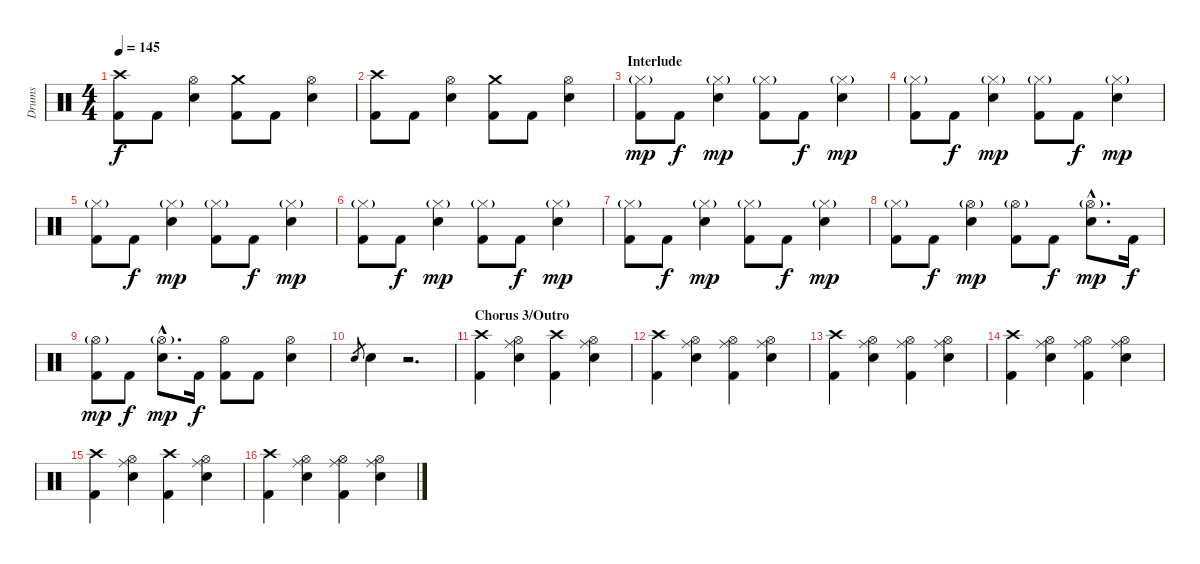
\track ("Drums" "Drums") {instrument percussion}
\staff {score}
\articulation defaults
\ts (4 4)
\tempo 145
\clef neutral
\ks c
("Crash high (hit)" "Kick (hit) 2").8{dy f} "Kick (hit) 2".8 ("Hi-Hat (open)" "Snare (hit) 2").4 ("Crash medium (hit)" "Kick (hit) 2").8 "Kick (hit) 2".8 ("Hi-Hat (open)" "Snare (hit) 2").4 |
("Crash high (hit)" "Kick (hit) 2").8 "Kick (hit) 2".8 ("Hi-Hat (open)" "Snare (hit) 2").4 ("Crash medium (hit)" "Kick (hit) 2").8 "Kick (hit) 2".8 ("Hi-Hat (open)" "Snare (hit) 2").4 |
\section ("" "Interlude")
("Hi-Hat (closed)"{g} "Kick (hit) 2").8{dy mp} "Kick (hit) 2".8{dy f} ("Hi-Hat (closed)"{g} "Snare (hit) 2").4{dy mp} ("Hi-Hat (closed)"{g} "Kick (hit) 2").8 "Kick (hit) 2".8{dy f} ("Hi-Hat (closed)"{g} "Snare (hit) 2").4{dy mp} |
("Hi-Hat (closed)"{g} "Kick (hit) 2").8 "Kick (hit) 2".8{dy f} ("Hi-Hat (closed)"{g} "Snare (hit) 2").4{dy mp} ("Hi-Hat (closed)"{g} "Kick (hit) 2").8 "Kick (hit) 2".8{dy f} ("Hi-Hat (closed)"{g} "Snare (hit) 2").4{dy mp} |
("Hi-Hat (closed)"{g} "Kick (hit) 2").8 "Kick (hit) 2".8{dy f} ("Hi-Hat (closed)"{g} "Snare (hit) 2").4{dy mp} ("Hi-Hat (closed)"{g} "Kick (hit) 2").8 "Kick (hit) 2".8{dy f} ("Hi-Hat (closed)"{g} "Snare (hit) 2").4{dy mp} |
("Hi-Hat (closed)"{g} "Kick (hit) 2").8 "Kick (hit) 2".8{dy f} ("Hi-Hat (closed)"{g} "Snare (hit) 2").4{dy mp} ("Hi-Hat (closed)"{g} "Kick (hit) 2").8 "Kick (hit) 2".8{dy f} ("Hi-Hat (closed)"{g} "Snare (hit) 2").4{dy mp} |
("Hi-Hat (closed)"{g} "Kick (hit) 2").8 "Kick (hit) 2".8{dy f} ("Hi-Hat (closed)"{g} "Snare (hit) 2").4{dy mp} ("Hi-Hat (closed)"{g} "Kick (hit) 2").8 "Kick (hit) 2".8{dy f} ("Hi-Hat (closed)"{g} "Snare (hit) 2").4{dy mp} |
("Hi-Hat (closed)"{g} "Kick (hit) 2").8 "Kick (hit) 2".8{dy f} ("Hi-Hat (open)"{g} "Snare (hit) 2").4{dy mp} ("Hi-Hat (open)"{g} "Kick (hit) 2").8 "Kick (hit) 2".8{dy f} ("Hi-Hat (open)"{g hac} "Snare (hit) 2"{hac}).8{d dy mp} "Kick (hit) 2".16{dy f} |
("Hi-Hat (open)"{g} "Kick (hit) 2").8{dy mp} "Kick (hit) 2".8{dy f} ("Hi-Hat (open)"{g hac} "Snare (hit) 2"{hac}).8{d dy mp} "Kick (hit) 2".16{dy f} ("Hi-Hat (open)" "Kick (hit) 2").8 "Kick (hit) 2".8 ("Hi-Hat (open)" "Snare (hit) 2").4 |
"Snare (hit) 2".8{gr} "Snare (hit) 2".4 r.2{d} |
\section ("" "Chorus 3/Outro")
("Crash high (hit)" "Kick (hit) 2").4 ("Hi-Hat (open)" "Ride (middle)" "Snare (hit) 2").4 ("Crash high (hit)" "Kick (hit) 2").4 ("Hi-Hat (open)" "Ride (middle)" "Snare (hit) 2").4 |
("Crash high (hit)" "Kick (hit) 2").4 ("Hi-Hat (open)" "Ride (middle)" "Snare (hit) 2").4 ("Hi-Hat (open)" "Ride (middle)" "Kick (hit) 2").4 ("Hi-Hat (open)" "Ride (middle)" "Snare (hit) 2").4 |
("Crash high (hit)" "Kick (hit) 2").4 ("Hi-Hat (open)" "Ride (middle)" "Snare (hit) 2").4 ("Hi-Hat (open)" "Ride (middle)" "Kick (hit) 2").4 ("Hi-Hat (open)" "Ride (middle)" "Snare (hit) 2").4 |
("Crash high (hit)" "Kick (hit) 2").4 ("Hi-Hat (open)" "Ride (middle)" "Snare (hit) 2").4 ("Hi-Hat (open)" "Ride (middle)" "Kick (hit) 2").4 ("Hi-Hat (open)" "Ride (middle)" "Snare (hit) 2").4 |
("Crash high (hit)" "Kick (hit) 2").4 ("Hi-Hat (open)" "Ride (middle)" "Snare (hit) 2").4 ("Crash high (hit)" "Kick (hit) 2").4 ("Hi-Hat (open)" "Ride (middle)" "Snare (hit) 2").4 |
("Crash high (hit)" "Kick (hit) 2").4 ("Hi-Hat (open)" "Ride (middle)" "Snare (hit) 2").4 ("Hi-Hat (open)" "Ride (middle)" "Kick (hit) 2").4 ("Hi-Hat (open)" "Ride (middle)" "Snare (hit) 2").4
